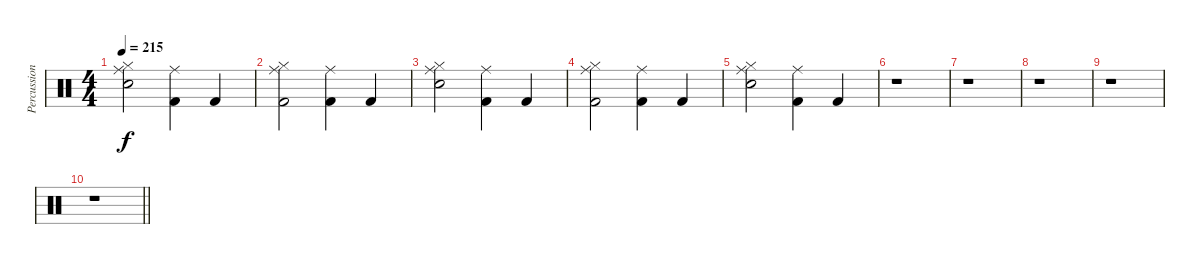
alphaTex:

\track ("Percussion" "Percussion") {instrument percussion}
\staff {score}
\articulation defaults
\ts (4 4)
\tempo 215
\clef neutral
\ks c
("Hi-Hat (closed)" "Ride (middle)" "Electric Snare (hit)").2{dy f} ("Ride (middle)" "Kick (hit) 2").4 "Kick (hit) 2".4 |
("Hi-Hat (closed)" "Ride (middle)" "Kick (hit) 2").2 ("Ride (middle)" "Kick (hit) 2").4 "Kick (hit) 2".4 |
("Hi-Hat (closed)" "Ride (middle)" "Electric Snare (hit)").2 ("Ride (middle)" "Kick (hit) 2").4 "Kick (hit) 2".4 |
("Hi-Hat (closed)" "Ride (middle)" "Kick (hit) 2").2 ("Ride (middle)" "Kick (hit) 2").4 "Kick (hit) 2".4 |
("Hi-Hat (closed)" "Ride (middle)" "Electric Snare (hit)").2 ("Ride (middle)" "Kick (hit) 2").4 "Kick (hit) 2".4 |
r.1 |
r.1 |
r.1 |
r.1 |
\barLineRight lightlight
r.1
